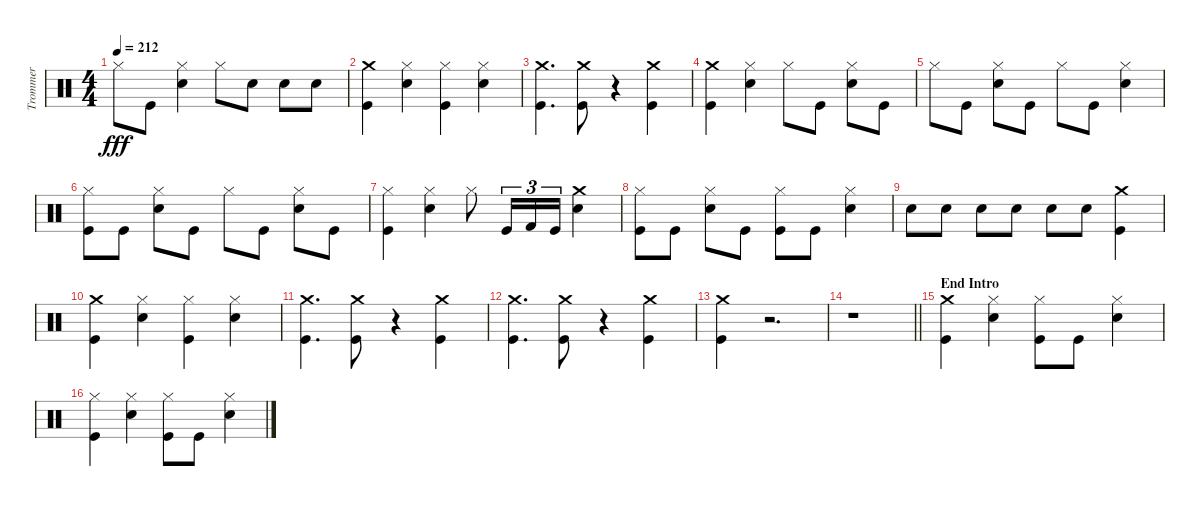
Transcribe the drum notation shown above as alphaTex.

\track ("Trommer" "Trommer") {instrument percussion}
\staff {score}
\articulation defaults
\ts (4 4)
\tempo 212
\clef neutral
\ks c "Hi-Hat (closed)".8{dy fff} "Kick (hit)".8
("Snare (hit) 2" "Hi-Hat (closed)").4 "Hi-Hat (closed)".8 "Snare (hit) 2".8 "Snare (hit) 2".8 "Snare (hit) 2".8 |
("Crash medium (hit)" "Kick (hit)").4 ("Snare (hit) 2" "Hi-Hat (closed)").4 ("Hi-Hat (closed)" "Kick (hit)").4 ("Hi-Hat (closed)" "Snare (hit) 2").4 |
("Crash medium (hit)" "Kick (hit)").4{d} ("Crash medium (hit)" "Kick (hit)").8 r.4 ("Crash medium (hit)" "Kick (hit)").4 |
("Crash medium (hit)" "Kick (hit)").4 ("Snare (hit) 2" "Hi-Hat (closed)").4 "Hi-Hat (closed)".8 "Kick (hit)".8 ("Snare (hit) 2" "Hi-Hat (closed)").8 "Kick (hit)".8 |
"Hi-Hat (closed)".8 "Kick (hit)".8 ("Snare (hit) 2" "Hi-Hat (closed)").8 "Kick (hit)".8 "Hi-Hat (closed)".8 "Kick (hit)".8 ("Snare (hit) 2" "Hi-Hat (closed)").4 |
("Kick (hit)" "Hi-Hat (closed)").8 "Kick (hit)".8 ("Snare (hit) 2" "Hi-Hat (closed)").8 "Kick (hit)".8 "Hi-Hat (closed)".8 "Kick (hit)".8 ("Snare (hit) 2" "Hi-Hat (closed)").8 "Kick (hit)".8 |
("Kick (hit)" "Hi-Hat (closed)").4 ("Snare (hit) 2" "Hi-Hat (closed)").4 "Hi-Hat (closed)".8 "Kick (hit)".16{tu (3 2)} "Kick (hit) 2".16{tu (3 2)} "Kick (hit)".16{tu (3 2)} ("Snare (hit) 2" "Crash medium (hit)").4 |
("Kick (hit)" "Hi-Hat (closed)").8 "Kick (hit)".8 ("Snare (hit) 2" "Hi-Hat (closed)").8 "Kick (hit)".8 ("Kick (hit)" "Hi-Hat (closed)").8 "Kick (hit)".8 ("Snare (hit) 2" "Hi-Hat (closed)").4 |
"Snare (hit) 2".8 "Snare (hit) 2".8 "Snare (hit) 2".8 "Snare (hit) 2".8 "Snare (hit) 2".8 "Snare (hit) 2".8 ("Kick (hit)" "Crash medium (hit)").4 |
("Crash medium (hit)" "Kick (hit)").4 ("Hi-Hat (closed)" "Snare (hit) 2").4 ("Hi-Hat (closed)" "Kick (hit)").4 ("Hi-Hat (closed)" "Snare (hit) 2").4 |
("Crash medium (hit)" "Kick (hit)").4{d} ("Crash medium (hit)" "Kick (hit)").8 r.4 ("Crash medium (hit)" "Kick (hit)").4 |
("Crash medium (hit)" "Kick (hit)").4{d} ("Crash medium (hit)" "Kick (hit)").8 r.4 ("Crash medium (hit)" "Kick (hit)").4 |
("Kick (hit)" "Crash medium (hit)").4 r.2{d} |
\barLineRight lightlight
r.1 |
\section ("" "End Intro")
("Kick (hit)" "Crash medium (hit)").4 ("Snare (hit) 2" "Hi-Hat (closed)").4 ("Hi-Hat (closed)" "Kick (hit)").8 "Kick (hit)".8 ("Hi-Hat (closed)" "Snare (hit) 2").4 |
("Kick (hit)" "Hi-Hat (closed)").4 ("Hi-Hat (closed)" "Snare (hit) 2").4 ("Hi-Hat (closed)" "Kick (hit)").8 "Kick (hit)".8 ("Hi-Hat (closed)" "Snare (hit) 2").4
